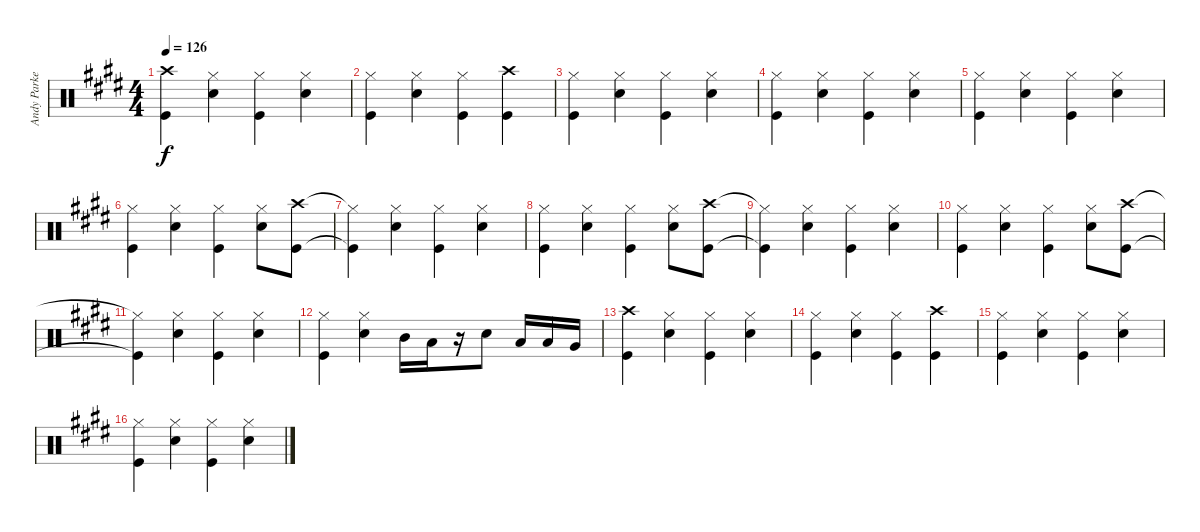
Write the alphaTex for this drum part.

\track ("Andy Parker Drums" "Andy Parke") {instrument percussion}
\staff {score}
\articulation defaults
\ts (4 4)
\tempo 126
\clef neutral
\ks e
("Crash high (hit)" "Kick (hit)").4{dy f} ("Hi-Hat (closed)" "Snare (hit) 2").4 ("Hi-Hat (closed)" "Kick (hit)").4 ("Hi-Hat (closed)" "Snare (hit) 2").4 |
("Hi-Hat (closed)" "Kick (hit)").4 ("Hi-Hat (closed)" "Snare (hit) 2").4 ("Hi-Hat (closed)" "Kick (hit)").4 ("Crash high (hit)" "Kick (hit)").4 |
("Hi-Hat (closed)" "Kick (hit)").4 ("Hi-Hat (closed)" "Snare (hit) 2").4 ("Hi-Hat (closed)" "Kick (hit)").4 ("Hi-Hat (closed)" "Snare (hit) 2").4 |
("Hi-Hat (closed)" "Kick (hit)").4 ("Hi-Hat (closed)" "Snare (hit) 2").4 ("Hi-Hat (closed)" "Kick (hit)").4 ("Hi-Hat (closed)" "Snare (hit) 2").4 |
("Hi-Hat (closed)" "Kick (hit)").4 ("Hi-Hat (closed)" "Snare (hit) 2").4 ("Hi-Hat (closed)" "Kick (hit)").4 ("Hi-Hat (closed)" "Snare (hit) 2").4 |
("Hi-Hat (closed)" "Kick (hit)").4 ("Hi-Hat (closed)" "Snare (hit) 2").4 ("Hi-Hat (closed)" "Kick (hit)").4 ("Hi-Hat (closed)" "Snare (hit) 2").8 ("Crash high (hit)" "Kick (hit)").8 |
("Hi-Hat (closed)"{t} "Kick (hit)"{t}).4 ("Hi-Hat (closed)" "Snare (hit) 2").4 ("Hi-Hat (closed)" "Kick (hit)").4 ("Hi-Hat (closed)" "Snare (hit) 2").4 |
("Hi-Hat (closed)" "Kick (hit)").4 ("Hi-Hat (closed)" "Snare (hit) 2").4 ("Hi-Hat (closed)" "Kick (hit)").4 ("Hi-Hat (closed)" "Snare (hit) 2").8 ("Crash high (hit)" "Kick (hit)").8 |
("Hi-Hat (closed)"{t} "Kick (hit)"{t}).4 ("Hi-Hat (closed)" "Snare (hit) 2").4 ("Hi-Hat (closed)" "Kick (hit)").4 ("Hi-Hat (closed)" "Snare (hit) 2").4 |
("Hi-Hat (closed)" "Kick (hit)").4 ("Hi-Hat (closed)" "Snare (hit) 2").4 ("Hi-Hat (closed)" "Kick (hit)").4 ("Hi-Hat (closed)" "Snare (hit) 2").8 ("Crash high (hit)" "Kick (hit)").8 |
("Hi-Hat (closed)"{t} "Kick (hit)"{t}).4 ("Hi-Hat (closed)" "Snare (hit) 2").4 ("Hi-Hat (closed)" "Kick (hit)").4 ("Hi-Hat (closed)" "Snare (hit) 2").4 |
("Hi-Hat (closed)" "Kick (hit)").4 ("Hi-Hat (closed)" "Snare (hit) 2").4 "Mid Tom (hit)".16 "Low Tom (hit)".16 r.16 "Snare (hit) 2".8 "Low Tom (hit)".16 "Low Tom (hit)".16 "Very Low Tom (hit)".16 |
("Crash high (hit)" "Kick (hit)").4 ("Hi-Hat (closed)" "Snare (hit) 2").4 ("Hi-Hat (closed)" "Kick (hit)").4 ("Hi-Hat (closed)" "Snare (hit) 2").4 |
("Hi-Hat (closed)" "Kick (hit)").4 ("Hi-Hat (closed)" "Snare (hit) 2").4 ("Hi-Hat (closed)" "Kick (hit)").4 ("Crash high (hit)" "Kick (hit)").4 |
("Hi-Hat (closed)" "Kick (hit)").4 ("Hi-Hat (closed)" "Snare (hit) 2").4 ("Hi-Hat (closed)" "Kick (hit)").4 ("Hi-Hat (closed)" "Snare (hit) 2").4 |
("Hi-Hat (closed)" "Kick (hit)").4 ("Hi-Hat (closed)" "Snare (hit) 2").4 ("Hi-Hat (closed)" "Kick (hit)").4 ("Hi-Hat (closed)" "Snare (hit) 2").4
